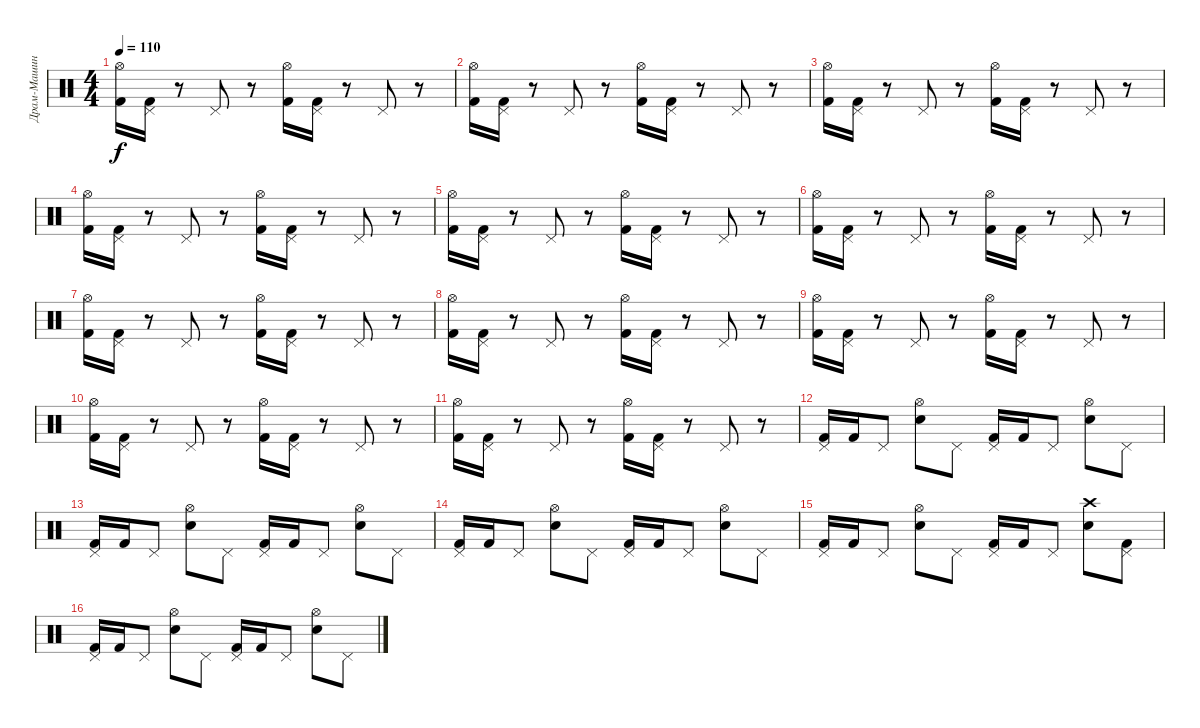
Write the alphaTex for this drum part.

\track ("Драм-Машина" "Драм-Машин") {instrument percussion}
\staff {score}
\articulation defaults
\ts (4 4)
\tempo 110
\clef neutral
\ks c
("Hi-Hat (open)" "Kick (hit) 2").16{dy f} ("Pedal Hi-Hat (hit)" "Kick (hit) 2").16 r.8 "Pedal Hi-Hat (hit)".8 r.8 ("Hi-Hat (open)" "Kick (hit) 2").16 ("Pedal Hi-Hat (hit)" "Kick (hit) 2").16 r.8 "Pedal Hi-Hat (hit)".8 r.8 |
("Hi-Hat (open)" "Kick (hit) 2").16 ("Pedal Hi-Hat (hit)" "Kick (hit) 2").16 r.8 "Pedal Hi-Hat (hit)".8 r.8 ("Hi-Hat (open)" "Kick (hit) 2").16 ("Pedal Hi-Hat (hit)" "Kick (hit) 2").16 r.8 "Pedal Hi-Hat (hit)".8 r.8 |
("Hi-Hat (open)" "Kick (hit) 2").16 ("Pedal Hi-Hat (hit)" "Kick (hit) 2").16 r.8 "Pedal Hi-Hat (hit)".8 r.8 ("Hi-Hat (open)" "Kick (hit) 2").16 ("Pedal Hi-Hat (hit)" "Kick (hit) 2").16 r.8 "Pedal Hi-Hat (hit)".8 r.8 |
("Hi-Hat (open)" "Kick (hit) 2").16 ("Pedal Hi-Hat (hit)" "Kick (hit) 2").16 r.8 "Pedal Hi-Hat (hit)".8 r.8 ("Hi-Hat (open)" "Kick (hit) 2").16 ("Pedal Hi-Hat (hit)" "Kick (hit) 2").16 r.8 "Pedal Hi-Hat (hit)".8 r.8 |
("Hi-Hat (open)" "Kick (hit) 2").16 ("Pedal Hi-Hat (hit)" "Kick (hit) 2").16 r.8 "Pedal Hi-Hat (hit)".8 r.8 ("Hi-Hat (open)" "Kick (hit) 2").16 ("Pedal Hi-Hat (hit)" "Kick (hit) 2").16 r.8 "Pedal Hi-Hat (hit)".8 r.8 |
("Hi-Hat (open)" "Kick (hit) 2").16 ("Pedal Hi-Hat (hit)" "Kick (hit) 2").16 r.8 "Pedal Hi-Hat (hit)".8 r.8 ("Hi-Hat (open)" "Kick (hit) 2").16 ("Pedal Hi-Hat (hit)" "Kick (hit) 2").16 r.8 "Pedal Hi-Hat (hit)".8 r.8 |
("Hi-Hat (open)" "Kick (hit) 2").16 ("Pedal Hi-Hat (hit)" "Kick (hit) 2").16 r.8 "Pedal Hi-Hat (hit)".8 r.8 ("Hi-Hat (open)" "Kick (hit) 2").16 ("Pedal Hi-Hat (hit)" "Kick (hit) 2").16 r.8 "Pedal Hi-Hat (hit)".8 r.8 |
("Hi-Hat (open)" "Kick (hit) 2").16 ("Pedal Hi-Hat (hit)" "Kick (hit) 2").16 r.8 "Pedal Hi-Hat (hit)".8 r.8 ("Hi-Hat (open)" "Kick (hit) 2").16 ("Pedal Hi-Hat (hit)" "Kick (hit) 2").16 r.8 "Pedal Hi-Hat (hit)".8 r.8 |
("Hi-Hat (open)" "Kick (hit) 2").16 ("Pedal Hi-Hat (hit)" "Kick (hit) 2").16 r.8 "Pedal Hi-Hat (hit)".8 r.8 ("Hi-Hat (open)" "Kick (hit) 2").16 ("Pedal Hi-Hat (hit)" "Kick (hit) 2").16 r.8 "Pedal Hi-Hat (hit)".8 r.8 |
("Hi-Hat (open)" "Kick (hit) 2").16 ("Pedal Hi-Hat (hit)" "Kick (hit) 2").16 r.8 "Pedal Hi-Hat (hit)".8 r.8 ("Hi-Hat (open)" "Kick (hit) 2").16 ("Pedal Hi-Hat (hit)" "Kick (hit) 2").16 r.8 "Pedal Hi-Hat (hit)".8 r.8 |
("Hi-Hat (open)" "Kick (hit) 2").16 ("Pedal Hi-Hat (hit)" "Kick (hit) 2").16 r.8 "Pedal Hi-Hat (hit)".8 r.8 ("Hi-Hat (open)" "Kick (hit) 2").16 ("Pedal Hi-Hat (hit)" "Kick (hit) 2").16 r.8 "Pedal Hi-Hat (hit)".8 r.8 |
("Pedal Hi-Hat (hit)" "Kick (hit) 2").16 "Kick (hit) 2".16 "Pedal Hi-Hat (hit)".8 ("Hi-Hat (open)" "Electric Snare (hit)").8 "Pedal Hi-Hat (hit)".8 ("Pedal Hi-Hat (hit)" "Kick (hit) 2").16 "Kick (hit) 2".16 "Pedal Hi-Hat (hit)".8 ("Hi-Hat (open)" "Electric Snare (hit)").8 "Pedal Hi-Hat (hit)".8 |
("Pedal Hi-Hat (hit)" "Kick (hit) 2").16 "Kick (hit) 2".16 "Pedal Hi-Hat (hit)".8 ("Hi-Hat (open)" "Electric Snare (hit)").8 "Pedal Hi-Hat (hit)".8 ("Pedal Hi-Hat (hit)" "Kick (hit) 2").16 "Kick (hit) 2".16 "Pedal Hi-Hat (hit)".8 ("Hi-Hat (open)" "Electric Snare (hit)").8 "Pedal Hi-Hat (hit)".8 |
("Pedal Hi-Hat (hit)" "Kick (hit) 2").16 "Kick (hit) 2".16 "Pedal Hi-Hat (hit)".8 ("Hi-Hat (open)" "Electric Snare (hit)").8 "Pedal Hi-Hat (hit)".8 ("Pedal Hi-Hat (hit)" "Kick (hit) 2").16 "Kick (hit) 2".16 "Pedal Hi-Hat (hit)".8 ("Hi-Hat (open)" "Electric Snare (hit)").8 "Pedal Hi-Hat (hit)".8 |
("Pedal Hi-Hat (hit)" "Kick (hit) 2").16 "Kick (hit) 2".16 "Pedal Hi-Hat (hit)".8 ("Hi-Hat (open)" "Electric Snare (hit)").8 "Pedal Hi-Hat (hit)".8 ("Pedal Hi-Hat (hit)" "Kick (hit) 2").16 "Kick (hit) 2".16 "Pedal Hi-Hat (hit)".8 ("Crash high (hit)" "Electric Snare (hit)").8 ("Kick (hit) 2" "Pedal Hi-Hat (hit)").8 |
("Pedal Hi-Hat (hit)" "Kick (hit) 2").16 "Kick (hit) 2".16 "Pedal Hi-Hat (hit)".8 ("Hi-Hat (open)" "Electric Snare (hit)").8 "Pedal Hi-Hat (hit)".8 ("Pedal Hi-Hat (hit)" "Kick (hit) 2").16 "Kick (hit) 2".16 "Pedal Hi-Hat (hit)".8 ("Hi-Hat (open)" "Electric Snare (hit)").8 "Pedal Hi-Hat (hit)".8
